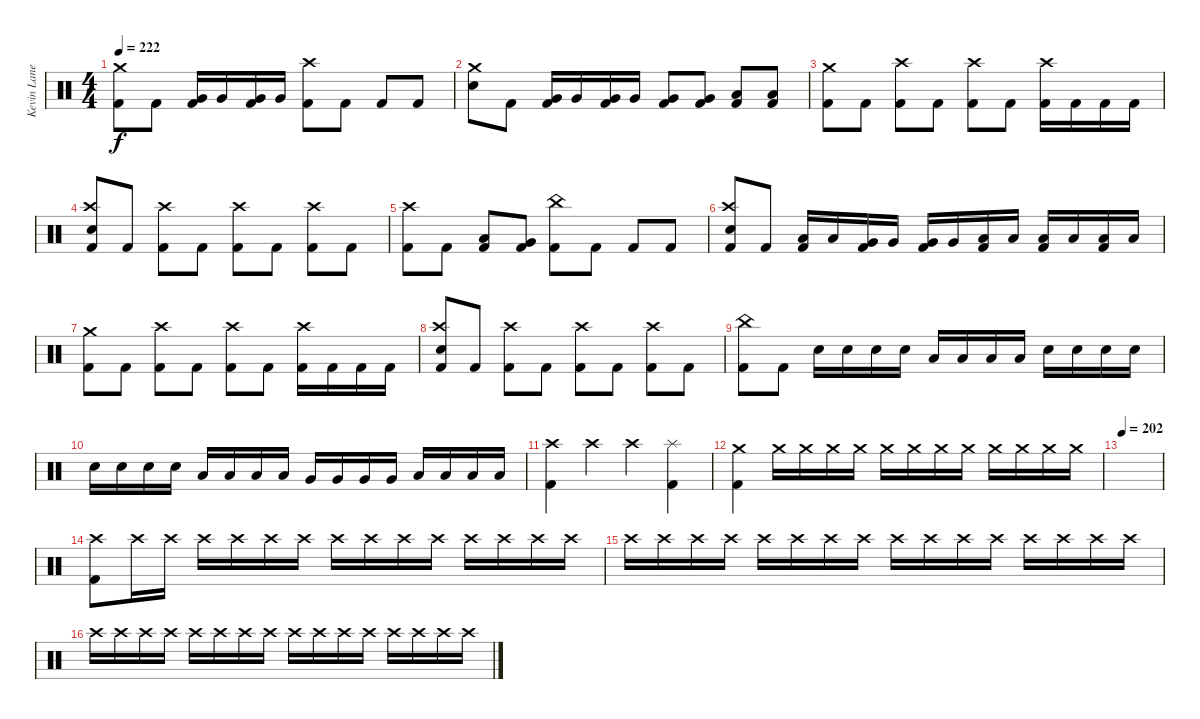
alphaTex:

\track ("Kevin Lane (Drums)" "Kevin Lane") {instrument percussion}
\staff {score}
\articulation defaults
\ts (4 4)
\tempo 222
\clef neutral
\ks c
("Crash medium (hit)" "Kick (hit) 2").8{dy f} "Kick (hit) 2".8 ("Very Low Tom (hit)" "Kick (hit) 2").16 "Very Low Tom (hit)".16 ("Very Low Tom (hit)" "Kick (hit) 2").16 "Very Low Tom (hit)".16 ("Crash high (hit)" "Kick (hit) 2").8 "Kick (hit) 2".8 "Kick (hit) 2".8 "Kick (hit) 2".8 |
("Crash medium (hit)" "Snare (hit) 2").8 "Kick (hit) 2".8 ("Very Low Tom (hit)" "Kick (hit) 2").16 "Very Low Tom (hit)".16 ("Very Low Tom (hit)" "Kick (hit) 2").16 "Very Low Tom (hit)".16 ("Very Low Tom (hit)" "Kick (hit) 2").8 ("Very Low Tom (hit)" "Kick (hit) 2").8 ("Low Floor Tom (hit)" "Kick (hit) 2").8 ("Low Floor Tom (hit)" "Kick (hit) 2").8 |
("Crash medium (hit)" "Kick (hit) 2").8 "Kick (hit) 2".8 ("Crash high (hit)" "Kick (hit) 2").8 "Kick (hit) 2".8 ("Crash high (hit)" "Kick (hit) 2").8 "Kick (hit) 2".8 ("Crash high (hit)" "Kick (hit) 2").16 "Kick (hit) 2".16 "Kick (hit) 2".16 "Kick (hit) 2".16 |
("Crash high (hit)" "Snare (hit) 2" "Kick (hit) 2").8 "Kick (hit) 2".8 ("Crash high (hit)" "Kick (hit) 2").8 "Kick (hit) 2".8 ("Crash high (hit)" "Kick (hit) 2").8 "Kick (hit) 2".8 ("Crash high (hit)" "Kick (hit) 2").8 "Kick (hit) 2".8 |
("Crash high (hit)" "Kick (hit) 2").8 "Kick (hit) 2".8 ("Low Tom (hit)" "Kick (hit) 2").8 ("Very Low Tom (hit)" "Kick (hit) 2").8 ("China (hit)" "Kick (hit) 2").8 "Kick (hit) 2".8 "Kick (hit) 2".8 "Kick (hit) 2".8 |
("Snare (hit) 2" "Crash high (hit)" "Kick (hit) 2").8 "Kick (hit) 2".8 ("Low Tom (hit)" "Kick (hit) 2").16 "Low Tom (hit)".16 ("Very Low Tom (hit)" "Kick (hit) 2").16 "Very Low Tom (hit)".16 ("Very Low Tom (hit)" "Kick (hit) 2").16 "Very Low Tom (hit)".16 ("Low Floor Tom (hit)" "Kick (hit) 2").16 "Low Floor Tom (hit)".16 ("Low Floor Tom (hit)" "Kick (hit) 2").16 "Low Floor Tom (hit)".16 ("Low Floor Tom (hit)" "Kick (hit) 2").16 "Low Floor Tom (hit)".16 |
("Crash medium (hit)" "Kick (hit) 2").8 "Kick (hit) 2".8 ("Crash high (hit)" "Kick (hit) 2").8 "Kick (hit) 2".8 ("Crash high (hit)" "Kick (hit) 2").8 "Kick (hit) 2".8 ("Crash high (hit)" "Kick (hit) 2").16 "Kick (hit) 2".16 "Kick (hit) 2".16 "Kick (hit) 2".16 |
("Crash high (hit)" "Snare (hit) 2" "Kick (hit) 2").8 "Kick (hit) 2".8 ("Crash high (hit)" "Kick (hit) 2").8 "Kick (hit) 2".8 ("Crash high (hit)" "Kick (hit) 2").8 "Kick (hit) 2".8 ("Crash high (hit)" "Kick (hit) 2").8 "Kick (hit) 2".8 |
("China (hit)" "Kick (hit) 2").8 "Kick (hit) 2".8 "Snare (hit) 2".16 "Snare (hit) 2".16 "Snare (hit) 2".16 "Snare (hit) 2".16 "Low Tom (hit)".16 "Low Tom (hit)".16 "Low Tom (hit)".16 "Low Tom (hit)".16 "Snare (hit) 2".16 "Snare (hit) 2".16 "Snare (hit) 2".16 "Snare (hit) 2".16 |
"Snare (hit) 2".16 "Snare (hit) 2".16 "Snare (hit) 2".16 "Snare (hit) 2".16 "Low Tom (hit)".16 "Low Tom (hit)".16 "Low Tom (hit)".16 "Low Tom (hit)".16 "Very Low Tom (hit)".16 "Very Low Tom (hit)".16 "Very Low Tom (hit)".16 "Very Low Tom (hit)".16 "Low Floor Tom (hit)".16 "Low Floor Tom (hit)".16 "Low Floor Tom (hit)".16 "Low Floor Tom (hit)".16 |
("Crash high (hit)" "Kick (hit) 2").4 "Crash high (hit)".4 "Crash high (hit)".4 ("Splash (hit)" "Kick (hit) 2").4 |
("Crash medium (hit)" "Kick (hit) 2").4 "Crash medium (hit)".16 "Crash medium (hit)".16 "Crash medium (hit)".16 "Crash medium (hit)".16 "Crash medium (hit)".16 "Crash medium (hit)".16 "Crash medium (hit)".16 "Crash medium (hit)".16 "Crash medium (hit)".16 "Crash medium (hit)".16 "Crash medium (hit)".16 "Crash medium (hit)".16 |
\tempo 202
|
("Crash high (hit)" "Kick (hit) 2").8 "Crash high (hit)".16 "Crash high (hit)".16 "Crash high (hit)".16 "Crash high (hit)".16 "Crash high (hit)".16 "Crash high (hit)".16 "Crash high (hit)".16 "Crash high (hit)".16 "Crash high (hit)".16 "Crash high (hit)".16 "Crash high (hit)".16 "Crash high (hit)".16 "Crash high (hit)".16 "Crash high (hit)".16 |
"Crash high (hit)".16 "Crash high (hit)".16 "Crash high (hit)".16 "Crash high (hit)".16 "Crash high (hit)".16 "Crash high (hit)".16 "Crash high (hit)".16 "Crash high (hit)".16 "Crash high (hit)".16 "Crash high (hit)".16 "Crash high (hit)".16 "Crash high (hit)".16 "Crash high (hit)".16 "Crash high (hit)".16 "Crash high (hit)".16 "Crash high (hit)".16 |
"Crash high (hit)".16 "Crash high (hit)".16 "Crash high (hit)".16 "Crash high (hit)".16 "Crash high (hit)".16 "Crash high (hit)".16 "Crash high (hit)".16 "Crash high (hit)".16 "Crash high (hit)".16 "Crash high (hit)".16 "Crash high (hit)".16 "Crash high (hit)".16 "Crash high (hit)".16 "Crash high (hit)".16 "Crash high (hit)".16 "Crash high (hit)".16
